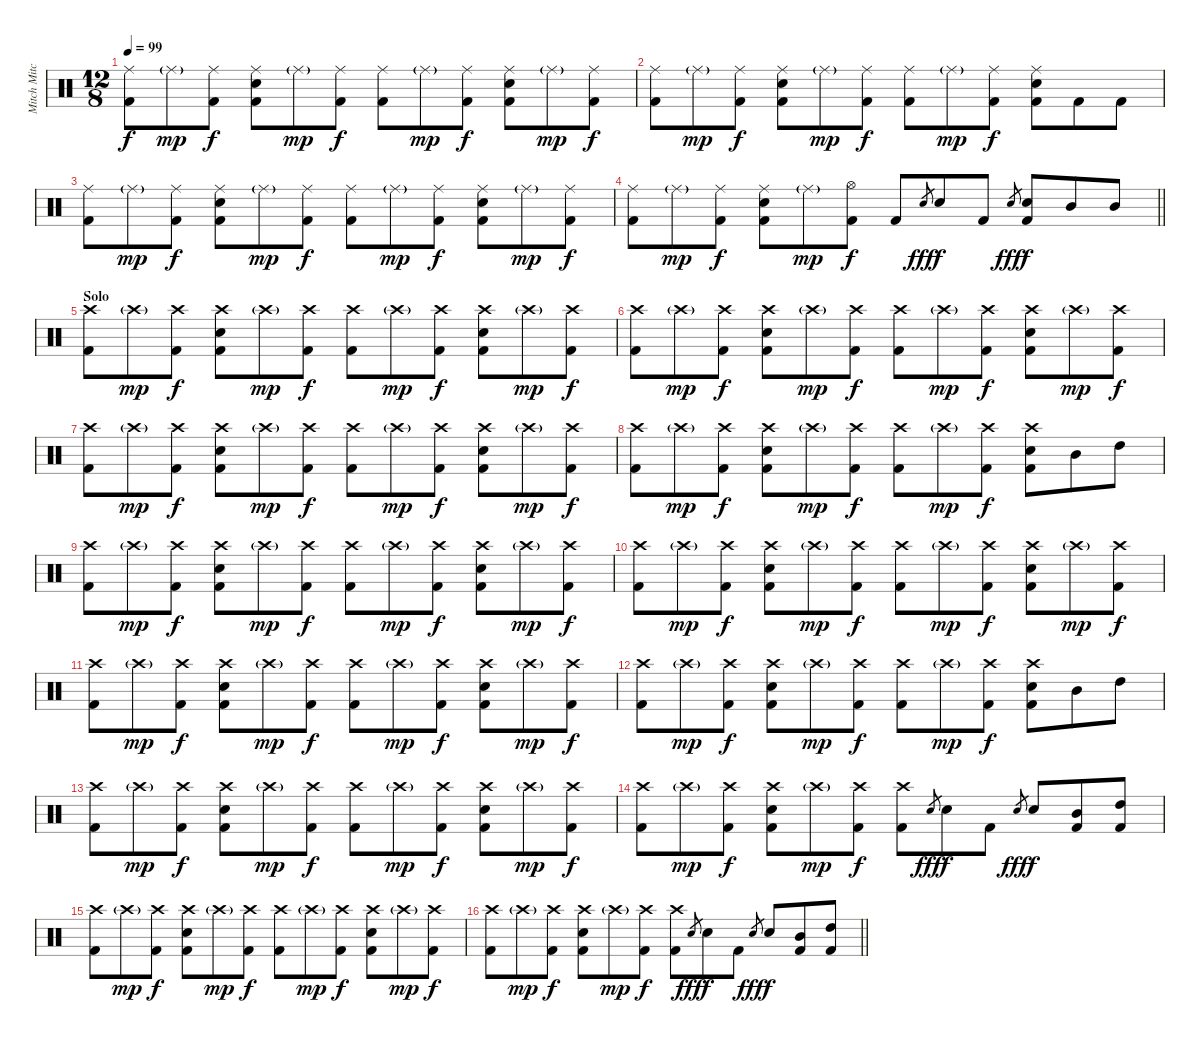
\track ("Mitch Mitchell" "Mitch Mitc") {instrument percussion}
\staff {score}
\articulation defaults
\ts (12 8)
\tempo 99
\clef neutral
\ks c
("Ride (middle)" "Kick (hit) 2").8{dy f} "Ride (middle)"{g}.8{dy mp} ("Ride (middle)" "Kick (hit) 2").8{dy f} ("Ride (middle)" "Electric Snare (hit)" "Kick (hit) 2").8 "Ride (middle)"{g}.8{dy mp} ("Ride (middle)" "Kick (hit) 2").8{dy f} ("Ride (middle)" "Kick (hit) 2").8 "Ride (middle)"{g}.8{dy mp} ("Ride (middle)" "Kick (hit) 2").8{dy f} ("Ride (middle)" "Electric Snare (hit)" "Kick (hit) 2").8 "Ride (middle)"{g}.8{dy mp} ("Ride (middle)" "Kick (hit) 2").8{dy f} |
("Ride (middle)" "Kick (hit) 2").8 "Ride (middle)"{g}.8{dy mp} ("Ride (middle)" "Kick (hit) 2").8{dy f} ("Ride (middle)" "Electric Snare (hit)" "Kick (hit) 2").8 "Ride (middle)"{g}.8{dy mp} ("Ride (middle)" "Kick (hit) 2").8{dy f} ("Ride (middle)" "Kick (hit) 2").8 "Ride (middle)"{g}.8{dy mp} ("Ride (middle)" "Kick (hit) 2").8{dy f} ("Ride (middle)" "Electric Snare (hit)" "Kick (hit) 2").8 "Kick (hit) 2".8 "Kick (hit) 2".8 |
("Ride (middle)" "Kick (hit) 2").8 "Ride (middle)"{g}.8{dy mp} ("Ride (middle)" "Kick (hit) 2").8{dy f} ("Ride (middle)" "Electric Snare (hit)" "Kick (hit) 2").8 "Ride (middle)"{g}.8{dy mp} ("Ride (middle)" "Kick (hit) 2").8{dy f} ("Ride (middle)" "Kick (hit) 2").8 "Ride (middle)"{g}.8{dy mp} ("Ride (middle)" "Kick (hit) 2").8{dy f} ("Ride (middle)" "Electric Snare (hit)" "Kick (hit) 2").8 "Ride (middle)"{g}.8{dy mp} ("Ride (middle)" "Kick (hit) 2").8{dy f} |
\barLineRight lightlight
("Ride (middle)" "Kick (hit) 2").8 "Ride (middle)"{g}.8{dy mp} ("Ride (middle)" "Kick (hit) 2").8{dy f} ("Ride (middle)" "Electric Snare (hit)" "Kick (hit) 2").8 "Ride (middle)"{g}.8{dy mp} ("Hi-Hat (open)" "Kick (hit) 2").8{dy f} "Kick (hit) 2".8 "Electric Snare (hit)".8{gr dy fff} "Electric Snare (hit)".8{dy f} "Kick (hit) 2".8 "Electric Snare (hit)".8{gr dy fff} ("Electric Snare (hit)" "Kick (hit) 2").8{dy f} "Mid Tom (hit)".8 "Mid Tom (hit)".8 |
\section ("" "Solo")
("Crash high (hit)" "Kick (hit) 2").8 "Crash high (hit)"{g}.8{dy mp} ("Crash high (hit)" "Kick (hit) 2").8{dy f} ("Crash high (hit)" "Electric Snare (hit)" "Kick (hit) 2").8 "Crash high (hit)"{g}.8{dy mp} ("Crash high (hit)" "Kick (hit) 2").8{dy f} ("Crash high (hit)" "Kick (hit) 2").8 "Crash high (hit)"{g}.8{dy mp} ("Crash high (hit)" "Kick (hit) 2").8{dy f} ("Crash high (hit)" "Electric Snare (hit)" "Kick (hit) 2").8 "Crash high (hit)"{g}.8{dy mp} ("Crash high (hit)" "Kick (hit) 2").8{dy f} |
("Crash high (hit)" "Kick (hit) 2").8 "Crash high (hit)"{g}.8{dy mp} ("Crash high (hit)" "Kick (hit) 2").8{dy f} ("Crash high (hit)" "Electric Snare (hit)" "Kick (hit) 2").8 "Crash high (hit)"{g}.8{dy mp} ("Crash high (hit)" "Kick (hit) 2").8{dy f} ("Crash high (hit)" "Kick (hit) 2").8 "Crash high (hit)"{g}.8{dy mp} ("Crash high (hit)" "Kick (hit) 2").8{dy f} ("Crash high (hit)" "Electric Snare (hit)" "Kick (hit) 2").8 "Crash high (hit)"{g}.8{dy mp} ("Crash high (hit)" "Kick (hit) 2").8{dy f} |
("Crash high (hit)" "Kick (hit) 2").8 "Crash high (hit)"{g}.8{dy mp} ("Crash high (hit)" "Kick (hit) 2").8{dy f} ("Crash high (hit)" "Electric Snare (hit)" "Kick (hit) 2").8 "Crash high (hit)"{g}.8{dy mp} ("Crash high (hit)" "Kick (hit) 2").8{dy f} ("Crash high (hit)" "Kick (hit) 2").8 "Crash high (hit)"{g}.8{dy mp} ("Crash high (hit)" "Kick (hit) 2").8{dy f} ("Crash high (hit)" "Electric Snare (hit)" "Kick (hit) 2").8 "Crash high (hit)"{g}.8{dy mp} ("Crash high (hit)" "Kick (hit) 2").8{dy f} |
("Crash high (hit)" "Kick (hit) 2").8 "Crash high (hit)"{g}.8{dy mp} ("Crash high (hit)" "Kick (hit) 2").8{dy f} ("Crash high (hit)" "Electric Snare (hit)" "Kick (hit) 2").8 "Crash high (hit)"{g}.8{dy mp} ("Crash high (hit)" "Kick (hit) 2").8{dy f} ("Crash high (hit)" "Kick (hit) 2").8 "Crash high (hit)"{g}.8{dy mp} ("Crash high (hit)" "Kick (hit) 2").8{dy f} ("Crash high (hit)" "Electric Snare (hit)" "Kick (hit) 2").8 "Mid Tom (hit)".8 "High Tom (hit)".8 |
("Crash high (hit)" "Kick (hit) 2").8 "Crash high (hit)"{g}.8{dy mp} ("Crash high (hit)" "Kick (hit) 2").8{dy f} ("Crash high (hit)" "Electric Snare (hit)" "Kick (hit) 2").8 "Crash high (hit)"{g}.8{dy mp} ("Crash high (hit)" "Kick (hit) 2").8{dy f} ("Crash high (hit)" "Kick (hit) 2").8 "Crash high (hit)"{g}.8{dy mp} ("Crash high (hit)" "Kick (hit) 2").8{dy f} ("Crash high (hit)" "Electric Snare (hit)" "Kick (hit) 2").8 "Crash high (hit)"{g}.8{dy mp} ("Crash high (hit)" "Kick (hit) 2").8{dy f} |
("Crash high (hit)" "Kick (hit) 2").8 "Crash high (hit)"{g}.8{dy mp} ("Crash high (hit)" "Kick (hit) 2").8{dy f} ("Crash high (hit)" "Electric Snare (hit)" "Kick (hit) 2").8 "Crash high (hit)"{g}.8{dy mp} ("Crash high (hit)" "Kick (hit) 2").8{dy f} ("Crash high (hit)" "Kick (hit) 2").8 "Crash high (hit)"{g}.8{dy mp} ("Crash high (hit)" "Kick (hit) 2").8{dy f} ("Crash high (hit)" "Electric Snare (hit)" "Kick (hit) 2").8 "Crash high (hit)"{g}.8{dy mp} ("Crash high (hit)" "Kick (hit) 2").8{dy f} |
("Crash high (hit)" "Kick (hit) 2").8 "Crash high (hit)"{g}.8{dy mp} ("Crash high (hit)" "Kick (hit) 2").8{dy f} ("Crash high (hit)" "Electric Snare (hit)" "Kick (hit) 2").8 "Crash high (hit)"{g}.8{dy mp} ("Crash high (hit)" "Kick (hit) 2").8{dy f} ("Crash high (hit)" "Kick (hit) 2").8 "Crash high (hit)"{g}.8{dy mp} ("Crash high (hit)" "Kick (hit) 2").8{dy f} ("Crash high (hit)" "Electric Snare (hit)" "Kick (hit) 2").8 "Crash high (hit)"{g}.8{dy mp} ("Crash high (hit)" "Kick (hit) 2").8{dy f} |
("Crash high (hit)" "Kick (hit) 2").8 "Crash high (hit)"{g}.8{dy mp} ("Crash high (hit)" "Kick (hit) 2").8{dy f} ("Crash high (hit)" "Electric Snare (hit)" "Kick (hit) 2").8 "Crash high (hit)"{g}.8{dy mp} ("Crash high (hit)" "Kick (hit) 2").8{dy f} ("Crash high (hit)" "Kick (hit) 2").8 "Crash high (hit)"{g}.8{dy mp} ("Crash high (hit)" "Kick (hit) 2").8{dy f} ("Crash high (hit)" "Electric Snare (hit)" "Kick (hit) 2").8 "Mid Tom (hit)".8 "High Tom (hit)".8 |
("Crash high (hit)" "Kick (hit) 2").8 "Crash high (hit)"{g}.8{dy mp} ("Crash high (hit)" "Kick (hit) 2").8{dy f} ("Crash high (hit)" "Electric Snare (hit)" "Kick (hit) 2").8 "Crash high (hit)"{g}.8{dy mp} ("Crash high (hit)" "Kick (hit) 2").8{dy f} ("Crash high (hit)" "Kick (hit) 2").8 "Crash high (hit)"{g}.8{dy mp} ("Crash high (hit)" "Kick (hit) 2").8{dy f} ("Crash high (hit)" "Electric Snare (hit)" "Kick (hit) 2").8 "Crash high (hit)"{g}.8{dy mp} ("Crash high (hit)" "Kick (hit) 2").8{dy f} |
("Crash high (hit)" "Kick (hit) 2").8 "Crash high (hit)"{g}.8{dy mp} ("Crash high (hit)" "Kick (hit) 2").8{dy f} ("Crash high (hit)" "Electric Snare (hit)" "Kick (hit) 2").8 "Crash high (hit)"{g}.8{dy mp} ("Crash high (hit)" "Kick (hit) 2").8{dy f} ("Crash high (hit)" "Kick (hit) 2").8 "Electric Snare (hit)".8{gr dy fff} "Electric Snare (hit)".8{dy f} "Kick (hit) 2".8 "Electric Snare (hit)".8{gr dy fff} "Electric Snare (hit)".8{dy f} ("Mid Tom (hit)" "Kick (hit) 2").8 ("High Tom (hit)" "Kick (hit) 2").8 |
("Crash high (hit)" "Kick (hit) 2").8 "Crash high (hit)"{g}.8{dy mp} ("Crash high (hit)" "Kick (hit) 2").8{dy f} ("Crash high (hit)" "Electric Snare (hit)" "Kick (hit) 2").8 "Crash high (hit)"{g}.8{dy mp} ("Crash high (hit)" "Kick (hit) 2").8{dy f} ("Crash high (hit)" "Kick (hit) 2").8 "Crash high (hit)"{g}.8{dy mp} ("Crash high (hit)" "Kick (hit) 2").8{dy f} ("Crash high (hit)" "Electric Snare (hit)" "Kick (hit) 2").8 "Crash high (hit)"{g}.8{dy mp} ("Crash high (hit)" "Kick (hit) 2").8{dy f} |
\barLineRight lightlight
("Crash high (hit)" "Kick (hit) 2").8 "Crash high (hit)"{g}.8{dy mp} ("Crash high (hit)" "Kick (hit) 2").8{dy f} ("Crash high (hit)" "Electric Snare (hit)" "Kick (hit) 2").8 "Crash high (hit)"{g}.8{dy mp} ("Crash high (hit)" "Kick (hit) 2").8{dy f} ("Crash high (hit)" "Kick (hit) 2").8 "Electric Snare (hit)".8{gr dy fff} "Electric Snare (hit)".8{dy f} "Kick (hit) 2".8 "Electric Snare (hit)".8{gr dy fff} "Electric Snare (hit)".8{dy f} ("Mid Tom (hit)" "Kick (hit) 2").8 ("High Tom (hit)" "Kick (hit) 2").8
